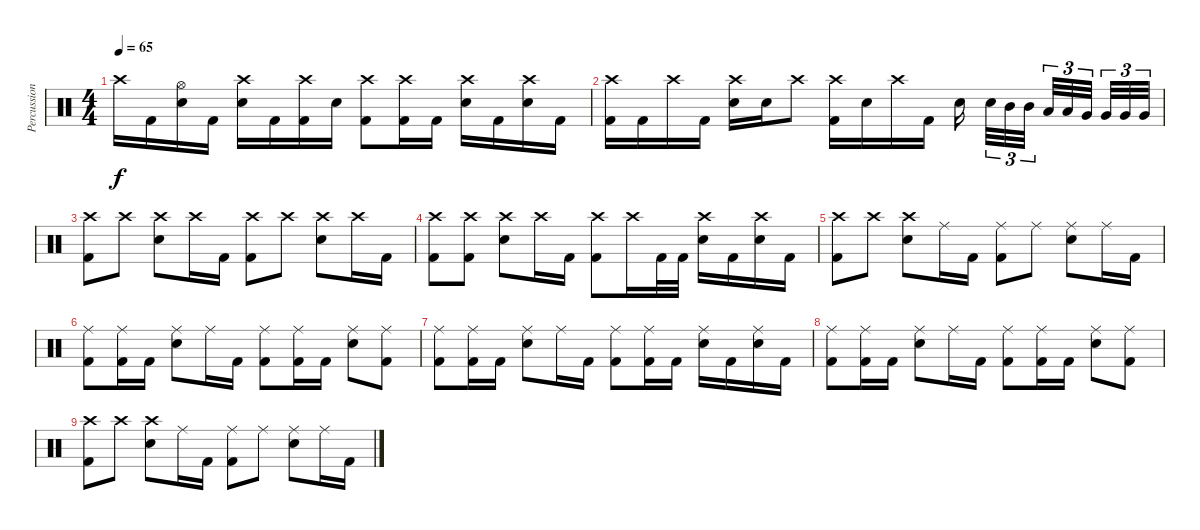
\track ("Percussion" "Percussion") {instrument percussion}
\staff {score}
\articulation defaults
\ts (4 4)
\tempo 65
\clef neutral
\ks c "Crash high (hit)".16{dy f} "Kick (hit) 2".16
("Hi-Hat (open)" "Electric Snare (hit)").16 "Kick (hit) 2".16 ("Crash high (hit)" "Electric Snare (hit)").16 "Kick (hit) 2".16 ("Crash high (hit)" "Kick (hit) 2").16 "Electric Snare (hit)".16 ("Crash high (hit)" "Kick (hit) 2").8 ("Crash high (hit)" "Kick (hit) 2").16 "Kick (hit) 2".16 ("Crash high (hit)" "Electric Snare (hit)").16 "Kick (hit) 2".16 ("Crash high (hit)" "Electric Snare (hit)").16 "Kick (hit) 2".16 |
("Crash high (hit)" "Kick (hit) 2").16 "Kick (hit) 2".16 "Crash high (hit)".16 "Kick (hit) 2".16 ("Crash high (hit)" "Electric Snare (hit)").16 "Electric Snare (hit)".16 "Crash high (hit)".8 ("Crash high (hit)" "Kick (hit) 2").16 "Electric Snare (hit)".16 "Crash high (hit)".16 "Kick (hit) 2".16 "Electric Snare (hit)".16 "Electric Snare (hit)".32{tu (3 2)} "Mid Tom (hit)".32{tu (3 2)} "Mid Tom (hit)".32{tu (3 2)} "Low Tom (hit)".32{tu (3 2)} "Low Tom (hit)".32{tu (3 2)} "Very Low Tom (hit)".32{tu (3 2)} "Very Low Tom (hit)".32{tu (3 2)} "Very Low Tom (hit)".32{tu (3 2)} "Very Low Tom (hit)".32{tu (3 2)} |
("Crash high (hit)" "Kick (hit) 2").8 "Crash high (hit)".8 ("Crash high (hit)" "Electric Snare (hit)").8 "Crash high (hit)".16 "Kick (hit) 2".16 ("Crash high (hit)" "Kick (hit) 2").8 "Crash high (hit)".8 ("Crash high (hit)" "Electric Snare (hit)").8 "Crash high (hit)".16 "Kick (hit) 2".16 |
("Crash high (hit)" "Kick (hit) 2").8 ("Crash high (hit)" "Kick (hit) 2").8 ("Crash high (hit)" "Electric Snare (hit)").8 "Crash high (hit)".16 "Kick (hit) 2".16 ("Crash high (hit)" "Kick (hit) 2").8 "Crash high (hit)".16 "Kick (hit) 2".32 "Kick (hit) 2".32 ("Crash high (hit)" "Electric Snare (hit)").16 "Kick (hit) 2".16 ("Crash high (hit)" "Electric Snare (hit)").16 "Kick (hit) 2".16 |
("Crash high (hit)" "Kick (hit) 2").8 "Crash high (hit)".8 ("Crash high (hit)" "Electric Snare (hit)").8 "Ride (middle)".16 "Kick (hit) 2".16 ("Ride (middle)" "Kick (hit) 2").8 "Ride (middle)".8 ("Ride (middle)" "Electric Snare (hit)").8 "Ride (middle)".16 "Kick (hit) 2".16 |
("Ride (middle)" "Kick (hit) 2").8{volume 2} ("Ride (middle)" "Kick (hit) 2").16 "Kick (hit) 2".16 ("Ride (middle)" "Electric Snare (hit)").8 "Ride (middle)".16 "Kick (hit) 2".16 ("Ride (middle)" "Kick (hit) 2").8 ("Ride (middle)" "Kick (hit) 2").16 "Kick (hit) 2".16 ("Ride (middle)" "Electric Snare (hit)").8 ("Ride (middle)" "Kick (hit) 2").8 |
("Ride (middle)" "Kick (hit) 2").8 ("Ride (middle)" "Kick (hit) 2").16 "Kick (hit) 2".16 ("Ride (middle)" "Electric Snare (hit)").8 "Ride (middle)".16 "Kick (hit) 2".16 ("Ride (middle)" "Kick (hit) 2").8 ("Ride (middle)" "Kick (hit) 2").16 "Kick (hit) 2".16 ("Ride (middle)" "Electric Snare (hit)").16 "Kick (hit) 2".16 ("Ride (middle)" "Electric Snare (hit)").16 "Kick (hit) 2".16 |
("Ride (middle)" "Kick (hit) 2").8 ("Ride (middle)" "Kick (hit) 2").16 "Kick (hit) 2".16 ("Ride (middle)" "Electric Snare (hit)").8 "Ride (middle)".16 "Kick (hit) 2".16 ("Ride (middle)" "Kick (hit) 2").8 ("Ride (middle)" "Kick (hit) 2").16 "Kick (hit) 2".16 ("Ride (middle)" "Electric Snare (hit)").8 ("Ride (middle)" "Kick (hit) 2").8 |
("Crash high (hit)" "Kick (hit) 2").8 "Crash high (hit)".8 ("Crash high (hit)" "Electric Snare (hit)").8 "Ride (middle)".16 "Kick (hit) 2".16 ("Ride (middle)" "Kick (hit) 2").8 "Ride (middle)".8 ("Ride (middle)" "Electric Snare (hit)").8 "Ride (middle)".16 "Kick (hit) 2".16
